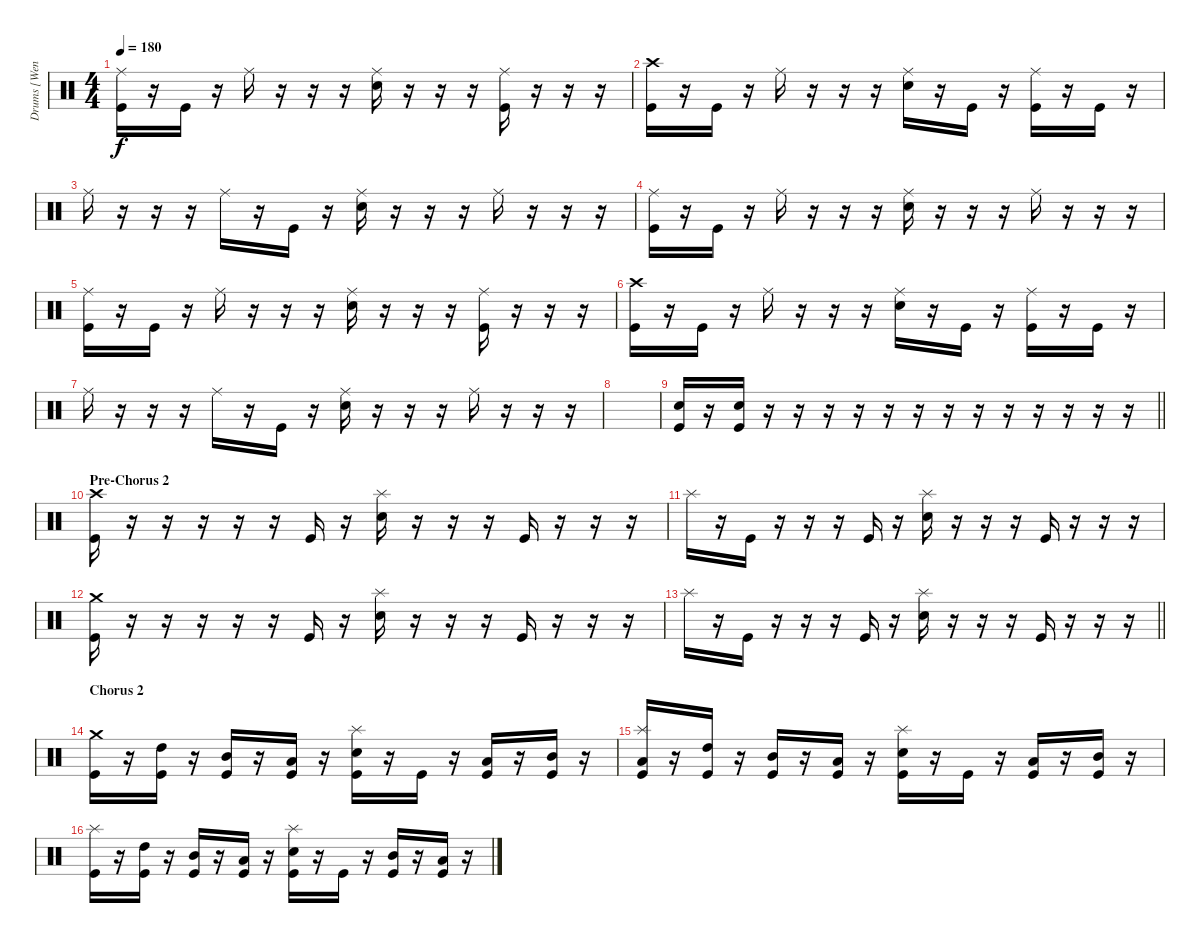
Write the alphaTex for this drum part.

\track ("Drums [Wengren]" "Drums [Wen") {instrument percussion}
\staff {score}
\articulation defaults
\ts (4 4)
\tempo 180
\clef neutral
\ks c
("Ride (middle)" "Kick (hit)").16{dy f} r.16 "Kick (hit)".16 r.16 "Ride (middle)".16 r.16 r.16 r.16 ("Ride (middle)" "Electric Snare (hit)").16 r.16 r.16 r.16 ("Ride (middle)" "Kick (hit)").16 r.16 r.16 r.16 |
("Crash high (hit)" "Kick (hit)").16 r.16 "Kick (hit)".16 r.16 "Ride (middle)".16 r.16 r.16 r.16 ("Ride (middle)" "Electric Snare (hit)").16 r.16 "Kick (hit)".16 r.16 ("Ride (middle)" "Kick (hit)").16 r.16 "Kick (hit)".16 r.16 |
"Ride (middle)".16 r.16 r.16 r.16 "Ride (middle)".16 r.16 "Kick (hit)".16 r.16 ("Ride (middle)" "Electric Snare (hit)").16 r.16 r.16 r.16 "Ride (middle)".16 r.16 r.16 r.16 |
("Ride (middle)" "Kick (hit)").16 r.16 "Kick (hit)".16 r.16 "Ride (middle)".16 r.16 r.16 r.16 ("Ride (middle)" "Electric Snare (hit)").16 r.16 r.16 r.16 "Ride (middle)".16 r.16 r.16 r.16 |
("Ride (middle)" "Kick (hit)").16 r.16 "Kick (hit)".16 r.16 "Ride (middle)".16 r.16 r.16 r.16 ("Ride (middle)" "Electric Snare (hit)").16 r.16 r.16 r.16 ("Ride (middle)" "Kick (hit)").16 r.16 r.16 r.16 |
("Crash high (hit)" "Kick (hit)").16 r.16 "Kick (hit)".16 r.16 "Ride (middle)".16 r.16 r.16 r.16 ("Ride (middle)" "Electric Snare (hit)").16 r.16 "Kick (hit)".16 r.16 ("Ride (middle)" "Kick (hit)").16 r.16 "Kick (hit)".16 r.16 |
"Ride (middle)".16 r.16 r.16 r.16 "Ride (middle)".16 r.16 "Kick (hit)".16 r.16 ("Ride (middle)" "Electric Snare (hit)").16 r.16 r.16 r.16 "Ride (middle)".16 r.16 r.16 r.16 |
|
\barLineRight lightlight
("Electric Snare (hit)" "Kick (hit)").16 r.16 ("Electric Snare (hit)" "Kick (hit)").16 r.16 r.16 r.16 r.16 r.16 r.16 r.16 r.16 r.16 r.16 r.16 r.16 r.16 |
\section ("" "Pre-Chorus 2")
("Crash high (hit)" "Kick (hit)").16 r.16 r.16 r.16 r.16 r.16 "Kick (hit)".16 r.16 ("Splash (hit)" "Electric Snare (hit)").16 r.16 r.16 r.16 "Kick (hit)".16 r.16 r.16 r.16 |
"Splash (hit)".16 r.16 "Kick (hit)".16 r.16 r.16 r.16 "Kick (hit)".16 r.16 ("Splash (hit)" "Electric Snare (hit)").16 r.16 r.16 r.16 "Kick (hit)".16 r.16 r.16 r.16 |
("Crash medium (hit)" "Kick (hit)").16 r.16 r.16 r.16 r.16 r.16 "Kick (hit)".16 r.16 ("Splash (hit)" "Electric Snare (hit)").16 r.16 r.16 r.16 "Kick (hit)".16 r.16 r.16 r.16 |
\barLineRight lightlight "Splash (hit)".16
r.16 "Kick (hit)".16 r.16 r.16 r.16 "Kick (hit)".16 r.16 ("Splash (hit)" "Electric Snare (hit)").16 r.16 r.16 r.16 "Kick (hit)".16 r.16 r.16 r.16 |
\section ("" "Chorus 2")
("Crash medium (hit)" "Kick (hit)").16 r.16 ("High Tom (hit)" "Kick (hit)").16 r.16 ("Mid Tom (hit)" "Kick (hit)").16 r.16 ("Low Tom (hit)" "Kick (hit)").16 r.16 ("Splash (hit)" "Electric Snare (hit)" "Kick (hit)").16 r.16 "Kick (hit)".16 r.16 ("Low Tom (hit)" "Kick (hit)").16 r.16 ("Mid Tom (hit)" "Kick (hit)").16 r.16 |
("Splash (hit)" "Low Floor Tom (hit)" "Kick (hit)").16 r.16 ("High Tom (hit)" "Kick (hit)").16 r.16 ("Mid Tom (hit)" "Kick (hit)").16 r.16 ("Low Tom (hit)" "Kick (hit)").16 r.16 ("Splash (hit)" "Electric Snare (hit)" "Kick (hit)").16 r.16 "Kick (hit)".16 r.16 ("Low Tom (hit)" "Kick (hit)").16 r.16 ("Mid Tom (hit)" "Kick (hit)").16 r.16 |
("Splash (hit)" "Kick (hit)").16 r.16 ("High Tom (hit)" "Kick (hit)").16 r.16 ("Mid Tom (hit)" "Kick (hit)").16 r.16 ("Low Tom (hit)" "Kick (hit)").16 r.16 ("Splash (hit)" "Electric Snare (hit)" "Kick (hit)").16 r.16 "Kick (hit)".16 r.16 ("Mid Tom (hit)" "Kick (hit)").16 r.16 ("Low Tom (hit)" "Kick (hit)").16 r.16
